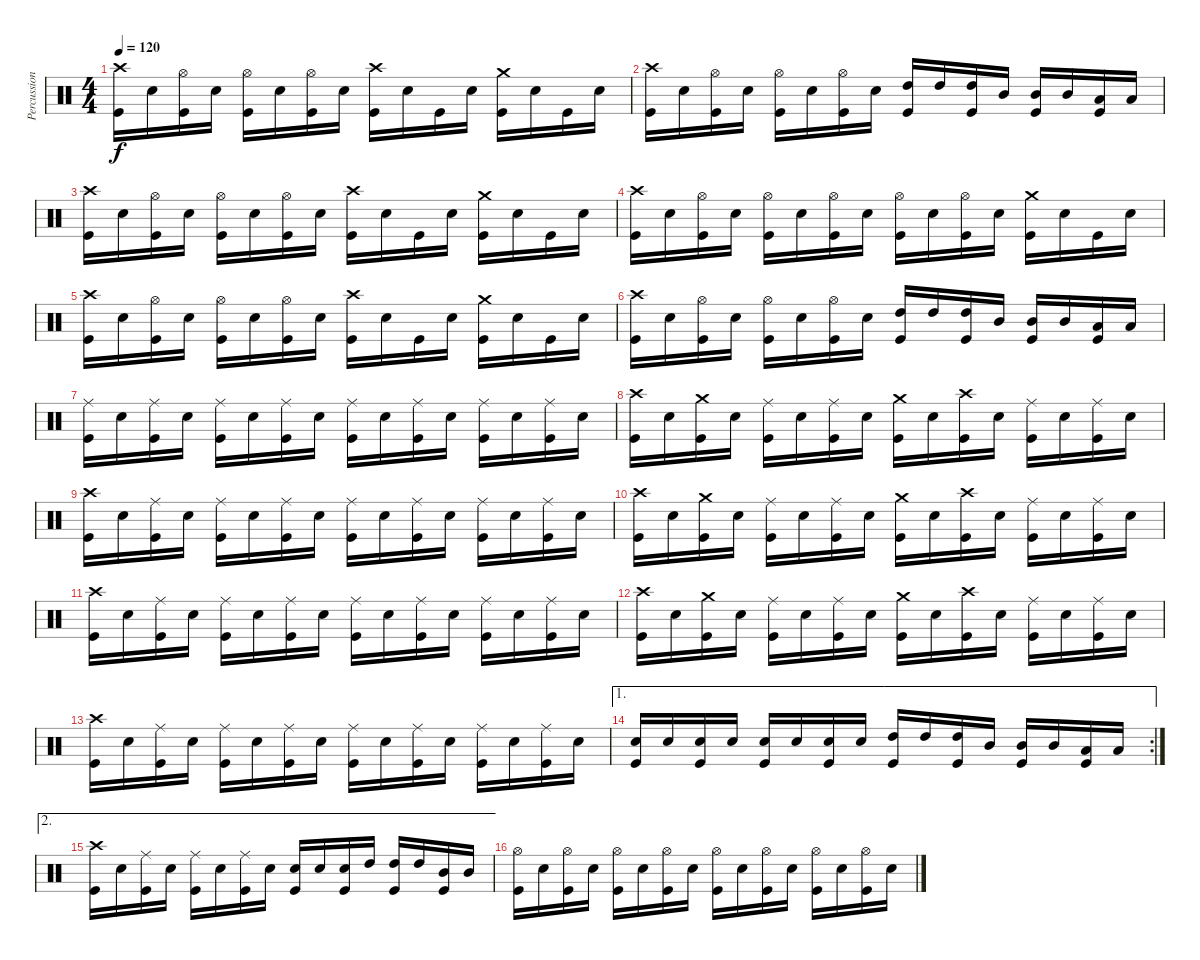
\track ("Percussioni" "Percussion") {instrument percussion}
\staff {score}
\articulation defaults
\ts (4 4)
\tempo 120
\clef neutral
\ks c
("Crash high (hit)" "Kick (hit)").16{dy f} "Electric Snare (hit)".16 ("Hi-Hat (open)" "Kick (hit)").16 "Electric Snare (hit)".16 ("Hi-Hat (open)" "Kick (hit)").16 "Electric Snare (hit)".16 ("Hi-Hat (open)" "Kick (hit)").16 "Electric Snare (hit)".16 ("Crash high (hit)" "Kick (hit)").16 "Electric Snare (hit)".16 "Kick (hit)".16 "Electric Snare (hit)".16 ("Crash medium (hit)" "Kick (hit)").16 "Electric Snare (hit)".16 "Kick (hit)".16 "Electric Snare (hit)".16 |
("Crash high (hit)" "Kick (hit)").16 "Electric Snare (hit)".16 ("Hi-Hat (open)" "Kick (hit)").16 "Electric Snare (hit)".16 ("Hi-Hat (open)" "Kick (hit)").16 "Electric Snare (hit)".16 ("Hi-Hat (open)" "Kick (hit)").16 "Electric Snare (hit)".16 ("High Tom (hit)" "Kick (hit)").16 "High Tom (hit)".16 ("High Tom (hit)" "Kick (hit)").16 "Mid Tom (hit)".16 ("Mid Tom (hit)" "Kick (hit)").16 "Mid Tom (hit)".16 ("Low Tom (hit)" "Kick (hit)").16 "Low Tom (hit)".16 |
("Crash high (hit)" "Kick (hit)").16 "Electric Snare (hit)".16 ("Hi-Hat (open)" "Kick (hit)").16 "Electric Snare (hit)".16 ("Hi-Hat (open)" "Kick (hit)").16 "Electric Snare (hit)".16 ("Hi-Hat (open)" "Kick (hit)").16 "Electric Snare (hit)".16 ("Crash high (hit)" "Kick (hit)").16 "Electric Snare (hit)".16 "Kick (hit)".16 "Electric Snare (hit)".16 ("Crash medium (hit)" "Kick (hit)").16 "Electric Snare (hit)".16 "Kick (hit)".16 "Electric Snare (hit)".16 |
("Crash high (hit)" "Kick (hit)").16 "Electric Snare (hit)".16 ("Hi-Hat (open)" "Kick (hit)").16 "Electric Snare (hit)".16 ("Hi-Hat (open)" "Kick (hit)").16 "Electric Snare (hit)".16 ("Hi-Hat (open)" "Kick (hit)").16 "Electric Snare (hit)".16 ("Hi-Hat (open)" "Kick (hit)").16 "Electric Snare (hit)".16 ("Hi-Hat (open)" "Kick (hit)").16 "Electric Snare (hit)".16 ("Crash medium (hit)" "Kick (hit)").16 "Electric Snare (hit)".16 "Kick (hit)".16 "Electric Snare (hit)".16 |
("Crash high (hit)" "Kick (hit)").16 "Electric Snare (hit)".16 ("Hi-Hat (open)" "Kick (hit)").16 "Electric Snare (hit)".16 ("Hi-Hat (open)" "Kick (hit)").16 "Electric Snare (hit)".16 ("Hi-Hat (open)" "Kick (hit)").16 "Electric Snare (hit)".16 ("Crash high (hit)" "Kick (hit)").16 "Electric Snare (hit)".16 "Kick (hit)".16 "Electric Snare (hit)".16 ("Crash medium (hit)" "Kick (hit)").16 "Electric Snare (hit)".16 "Kick (hit)".16 "Electric Snare (hit)".16 |
("Crash high (hit)" "Kick (hit)").16 "Electric Snare (hit)".16 ("Hi-Hat (open)" "Kick (hit)").16 "Electric Snare (hit)".16 ("Hi-Hat (open)" "Kick (hit)").16 "Electric Snare (hit)".16 ("Hi-Hat (open)" "Kick (hit)").16 "Electric Snare (hit)".16 ("High Tom (hit)" "Kick (hit)").16 "High Tom (hit)".16 ("High Tom (hit)" "Kick (hit)").16 "Mid Tom (hit)".16 ("Mid Tom (hit)" "Kick (hit)").16 "Mid Tom (hit)".16 ("Low Tom (hit)" "Kick (hit)").16 "Low Tom (hit)".16 |
("Ride (middle)" "Kick (hit)").16 "Electric Snare (hit)".16 ("Ride (middle)" "Kick (hit)").16 "Electric Snare (hit)".16 ("Ride (middle)" "Kick (hit)").16 "Electric Snare (hit)".16 ("Ride (middle)" "Kick (hit)").16 "Electric Snare (hit)".16 ("Ride (middle)" "Kick (hit)").16 "Electric Snare (hit)".16 ("Ride (middle)" "Kick (hit)").16 "Electric Snare (hit)".16 ("Ride (middle)" "Kick (hit)").16 "Electric Snare (hit)".16 ("Ride (middle)" "Kick (hit)").16 "Electric Snare (hit)".16 |
("Crash high (hit)" "Kick (hit)").16 "Electric Snare (hit)".16 ("Crash medium (hit)" "Kick (hit)").16 "Electric Snare (hit)".16 ("Ride (middle)" "Kick (hit)").16 "Electric Snare (hit)".16 ("Ride (middle)" "Kick (hit)").16 "Electric Snare (hit)".16 ("Crash medium (hit)" "Kick (hit)").16 "Electric Snare (hit)".16 ("Crash high (hit)" "Kick (hit)").16 "Electric Snare (hit)".16 ("Ride (middle)" "Kick (hit)").16 "Electric Snare (hit)".16 ("Ride (middle)" "Kick (hit)").16 "Electric Snare (hit)".16 |
("Crash high (hit)" "Kick (hit)").16 "Electric Snare (hit)".16 ("Ride (middle)" "Kick (hit)").16 "Electric Snare (hit)".16 ("Ride (middle)" "Kick (hit)").16 "Electric Snare (hit)".16 ("Ride (middle)" "Kick (hit)").16 "Electric Snare (hit)".16 ("Ride (middle)" "Kick (hit)").16 "Electric Snare (hit)".16 ("Ride (middle)" "Kick (hit)").16 "Electric Snare (hit)".16 ("Ride (middle)" "Kick (hit)").16 "Electric Snare (hit)".16 ("Ride (middle)" "Kick (hit)").16 "Electric Snare (hit)".16 |
("Crash high (hit)" "Kick (hit)").16 "Electric Snare (hit)".16 ("Crash medium (hit)" "Kick (hit)").16 "Electric Snare (hit)".16 ("Ride (middle)" "Kick (hit)").16 "Electric Snare (hit)".16 ("Ride (middle)" "Kick (hit)").16 "Electric Snare (hit)".16 ("Crash medium (hit)" "Kick (hit)").16 "Electric Snare (hit)".16 ("Crash high (hit)" "Kick (hit)").16 "Electric Snare (hit)".16 ("Ride (middle)" "Kick (hit)").16 "Electric Snare (hit)".16 ("Ride (middle)" "Kick (hit)").16 "Electric Snare (hit)".16 |
("Crash high (hit)" "Kick (hit)").16 "Electric Snare (hit)".16 ("Ride (middle)" "Kick (hit)").16 "Electric Snare (hit)".16 ("Ride (middle)" "Kick (hit)").16 "Electric Snare (hit)".16 ("Ride (middle)" "Kick (hit)").16 "Electric Snare (hit)".16 ("Ride (middle)" "Kick (hit)").16 "Electric Snare (hit)".16 ("Ride (middle)" "Kick (hit)").16 "Electric Snare (hit)".16 ("Ride (middle)" "Kick (hit)").16 "Electric Snare (hit)".16 ("Ride (middle)" "Kick (hit)").16 "Electric Snare (hit)".16 |
("Crash high (hit)" "Kick (hit)").16 "Electric Snare (hit)".16 ("Crash medium (hit)" "Kick (hit)").16 "Electric Snare (hit)".16 ("Ride (middle)" "Kick (hit)").16 "Electric Snare (hit)".16 ("Ride (middle)" "Kick (hit)").16 "Electric Snare (hit)".16 ("Crash medium (hit)" "Kick (hit)").16 "Electric Snare (hit)".16 ("Crash high (hit)" "Kick (hit)").16 "Electric Snare (hit)".16 ("Ride (middle)" "Kick (hit)").16 "Electric Snare (hit)".16 ("Ride (middle)" "Kick (hit)").16 "Electric Snare (hit)".16 |
("Crash high (hit)" "Kick (hit)").16 "Electric Snare (hit)".16 ("Ride (middle)" "Kick (hit)").16 "Electric Snare (hit)".16 ("Ride (middle)" "Kick (hit)").16 "Electric Snare (hit)".16 ("Ride (middle)" "Kick (hit)").16 "Electric Snare (hit)".16 ("Ride (middle)" "Kick (hit)").16 "Electric Snare (hit)".16 ("Ride (middle)" "Kick (hit)").16 "Electric Snare (hit)".16 ("Ride (middle)" "Kick (hit)").16 "Electric Snare (hit)".16 ("Ride (middle)" "Kick (hit)").16 "Electric Snare (hit)".16 |
\ae 1
\rc 2
("Electric Snare (hit)" "Kick (hit)").16 "Electric Snare (hit)".16 ("Electric Snare (hit)" "Kick (hit)").16 "Electric Snare (hit)".16 ("Electric Snare (hit)" "Kick (hit)").16 "Electric Snare (hit)".16 ("Electric Snare (hit)" "Kick (hit)").16 "Electric Snare (hit)".16 ("High Tom (hit)" "Kick (hit)").16 "High Tom (hit)".16 ("High Tom (hit)" "Kick (hit)").16 "Mid Tom (hit)".16 ("Mid Tom (hit)" "Kick (hit)").16 "Mid Tom (hit)".16 ("Low Tom (hit)" "Kick (hit)").16 "Low Tom (hit)".16 |
\ae 2
("Crash high (hit)" "Kick (hit)").16 "Electric Snare (hit)".16 ("Ride (middle)" "Kick (hit)").16 "Electric Snare (hit)".16 ("Ride (middle)" "Kick (hit)").16 "Electric Snare (hit)".16 ("Ride (middle)" "Kick (hit)").16 "Electric Snare (hit)".16 ("Electric Snare (hit)" "Kick (hit)").16 "Electric Snare (hit)".16 ("Electric Snare (hit)" "Kick (hit)").16 "High Tom (hit)".16 ("High Tom (hit)" "Kick (hit)").16 "High Tom (hit)".16 ("Mid Tom (hit)" "Kick (hit)").16 "Mid Tom (hit)".16 |
("Hi-Hat (open)" "Kick (hit)").16 "Electric Snare (hit)".16 ("Hi-Hat (open)" "Kick (hit)").16 "Electric Snare (hit)".16 ("Hi-Hat (open)" "Kick (hit)").16 "Electric Snare (hit)".16 ("Hi-Hat (open)" "Kick (hit)").16 "Electric Snare (hit)".16 ("Hi-Hat (open)" "Kick (hit)").16 "Electric Snare (hit)".16 ("Hi-Hat (open)" "Kick (hit)").16 "Electric Snare (hit)".16 ("Hi-Hat (open)" "Kick (hit)").16 "Electric Snare (hit)".16 ("Hi-Hat (open)" "Kick (hit)").16 "Electric Snare (hit)".16
